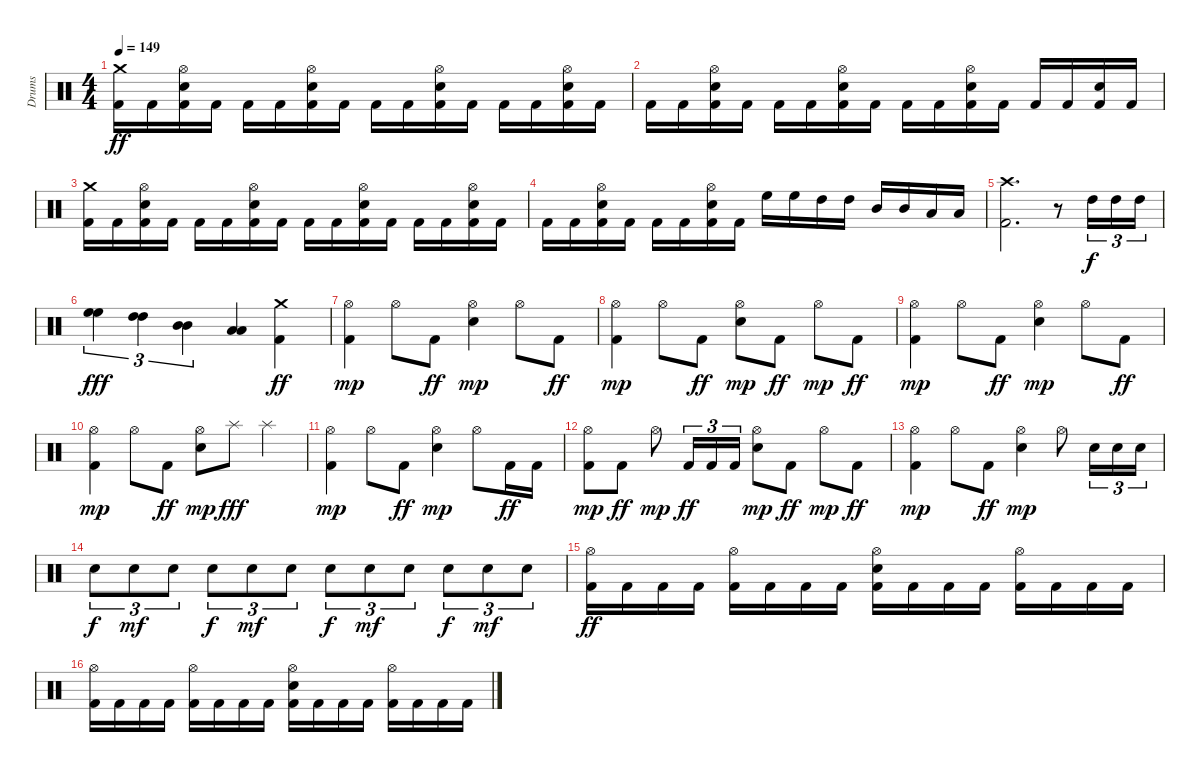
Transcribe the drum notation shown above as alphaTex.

\track ("Drums" "Drums") {instrument percussion}
\staff {score}
\articulation defaults
\ts (4 4)
\tempo 149
\clef neutral
\ks c
("Crash medium (hit)" "Kick (hit) 2").16{dy ff} "Kick (hit) 2".16 ("Snare (hit) 2" "Kick (hit) 2" "Hi-Hat (open)").16 "Kick (hit) 2".16 "Kick (hit) 2".16 "Kick (hit) 2".16 ("Snare (hit) 2" "Kick (hit) 2" "Hi-Hat (open)").16 "Kick (hit) 2".16 "Kick (hit) 2".16 "Kick (hit) 2".16 ("Snare (hit) 2" "Kick (hit) 2" "Hi-Hat (open)").16 "Kick (hit) 2".16 "Kick (hit) 2".16 "Kick (hit) 2".16 ("Snare (hit) 2" "Kick (hit) 2" "Hi-Hat (open)").16 "Kick (hit) 2".16 |
"Kick (hit) 2".16 "Kick (hit) 2".16 ("Snare (hit) 2" "Kick (hit) 2" "Hi-Hat (open)").16 "Kick (hit) 2".16 "Kick (hit) 2".16 "Kick (hit) 2".16 ("Snare (hit) 2" "Kick (hit) 2" "Hi-Hat (open)").16 "Kick (hit) 2".16 "Kick (hit) 2".16 "Kick (hit) 2".16 ("Snare (hit) 2" "Kick (hit) 2" "Hi-Hat (open)").16 "Kick (hit) 2".16 "Kick (hit) 2".16 "Kick (hit) 2".16 ("Snare (hit) 2" "Kick (hit) 2").16 "Kick (hit) 2".16 |
("Crash medium (hit)" "Kick (hit) 2").16 "Kick (hit) 2".16 ("Snare (hit) 2" "Kick (hit) 2" "Hi-Hat (open)").16 "Kick (hit) 2".16 "Kick (hit) 2".16 "Kick (hit) 2".16 ("Snare (hit) 2" "Kick (hit) 2" "Hi-Hat (open)").16 "Kick (hit) 2".16 "Kick (hit) 2".16 "Kick (hit) 2".16 ("Snare (hit) 2" "Kick (hit) 2" "Hi-Hat (open)").16 "Kick (hit) 2".16 "Kick (hit) 2".16 "Kick (hit) 2".16 ("Snare (hit) 2" "Kick (hit) 2" "Hi-Hat (open)").16 "Kick (hit) 2".16 |
"Kick (hit) 2".16 "Kick (hit) 2".16 ("Snare (hit) 2" "Kick (hit) 2" "Hi-Hat (open)").16 "Kick (hit) 2".16 "Kick (hit) 2".16 "Kick (hit) 2".16 ("Snare (hit) 2" "Kick (hit) 2" "Hi-Hat (open)").16 "Kick (hit) 2".16 "High Floor Tom (hit)".16 "High Floor Tom (hit)".16 "High Tom (hit)".16 "High Tom (hit)".16 "Mid Tom (hit)".16 "Mid Tom (hit)".16 "Low Tom (hit)".16 "Low Tom (hit)".16 |
("Crash high (hit)" "Kick (hit) 2").2{d} r.8 "High Tom (hit)".16{tu (3 2) dy f} "High Tom (hit)".16{tu (3 2)} "High Tom (hit)".16{tu (3 2)} |
("High Floor Tom (hit)" "High Floor Tom (hit)").4{tu (3 2) dy fff} ("High Tom (hit)" "High Tom (hit)").4{tu (3 2)} ("Mid Tom (hit)" "Mid Tom (hit)").4{tu (3 2)} ("Low Tom (hit)" "Low Tom (hit)").4 ("Crash medium (hit)" "Kick (hit) 2").4{dy ff} |
("Kick (hit) 2" "Hi-Hat (open)").4{dy mp} "Hi-Hat (open)".8 "Kick (hit) 2".8{dy ff} ("Snare (hit) 2" "Hi-Hat (open)").4{dy mp} "Hi-Hat (open)".8 "Kick (hit) 2".8{dy ff} |
("Kick (hit) 2" "Hi-Hat (open)").4{dy mp} "Hi-Hat (open)".8 "Kick (hit) 2".8{dy ff} ("Snare (hit) 2" "Hi-Hat (open)").8{dy mp} "Kick (hit) 2".8{dy ff} "Hi-Hat (open)".8{dy mp} "Kick (hit) 2".8{dy ff} |
("Kick (hit) 2" "Hi-Hat (open)").4{dy mp} "Hi-Hat (open)".8 "Kick (hit) 2".8{dy ff} ("Snare (hit) 2" "Hi-Hat (open)").4{dy mp} "Hi-Hat (open)".8 "Kick (hit) 2".8{dy ff} |
("Kick (hit) 2" "Hi-Hat (open)").4{dy mp} "Hi-Hat (open)".8 "Kick (hit) 2".8{dy ff} ("Snare (hit) 2" "Hi-Hat (open)").8{dy mp} "Splash (hit)".8{dy fff} "Splash (hit)".4 |
("Kick (hit) 2" "Hi-Hat (open)").4{dy mp} "Hi-Hat (open)".8 "Kick (hit) 2".8{dy ff} ("Snare (hit) 2" "Hi-Hat (open)").4{dy mp} "Hi-Hat (open)".8 "Kick (hit) 2".16{dy ff} "Kick (hit) 2".16 |
("Kick (hit) 2" "Hi-Hat (open)").8{dy mp} "Kick (hit) 2".8{dy ff} "Hi-Hat (open)".8{dy mp} "Kick (hit) 2".16{tu (3 2) dy ff} "Kick (hit) 2".16{tu (3 2)} "Kick (hit) 2".16{tu (3 2)} ("Snare (hit) 2" "Hi-Hat (open)").8{dy mp} "Kick (hit) 2".8{dy ff} "Hi-Hat (open)".8{dy mp} "Kick (hit) 2".8{dy ff} |
("Kick (hit) 2" "Hi-Hat (open)").4{dy mp} "Hi-Hat (open)".8 "Kick (hit) 2".8{dy ff} ("Snare (hit) 2" "Hi-Hat (open)").4{dy mp} "Hi-Hat (open)".8 "Snare (hit) 2".16{tu (3 2)} "Snare (hit) 2".16{tu (3 2)} "Snare (hit) 2".16{tu (3 2)} |
"Snare (hit) 2".8{tu (3 2) dy f} "Snare (hit) 2".8{tu (3 2) dy mf} "Snare (hit) 2".8{tu (3 2)} "Snare (hit) 2".8{tu (3 2) dy f} "Snare (hit) 2".8{tu (3 2) dy mf} "Snare (hit) 2".8{tu (3 2)} "Snare (hit) 2".8{tu (3 2) dy f} "Snare (hit) 2".8{tu (3 2) dy mf} "Snare (hit) 2".8{tu (3 2)} "Snare (hit) 2".8{tu (3 2) dy f} "Snare (hit) 2".8{tu (3 2) dy mf} "Snare (hit) 2".8{tu (3 2)} |
("Kick (hit) 2" "Hi-Hat (open)").16{dy ff} "Kick (hit) 2".16 "Kick (hit) 2".16 "Kick (hit) 2".16 ("Kick (hit) 2" "Hi-Hat (open)").16 "Kick (hit) 2".16 "Kick (hit) 2".16 "Kick (hit) 2".16 ("Snare (hit) 2" "Kick (hit) 2" "Hi-Hat (open)").16 "Kick (hit) 2".16 "Kick (hit) 2".16 "Kick (hit) 2".16 ("Kick (hit) 2" "Hi-Hat (open)").16 "Kick (hit) 2".16 "Kick (hit) 2".16 "Kick (hit) 2".16 |
("Kick (hit) 2" "Hi-Hat (open)").16 "Kick (hit) 2".16 "Kick (hit) 2".16 "Kick (hit) 2".16 ("Kick (hit) 2" "Hi-Hat (open)").16 "Kick (hit) 2".16 "Kick (hit) 2".16 "Kick (hit) 2".16 ("Snare (hit) 2" "Kick (hit) 2" "Hi-Hat (open)").16 "Kick (hit) 2".16 "Kick (hit) 2".16 "Kick (hit) 2".16 ("Kick (hit) 2" "Hi-Hat (open)").16 "Kick (hit) 2".16 "Kick (hit) 2".16 "Kick (hit) 2".16
